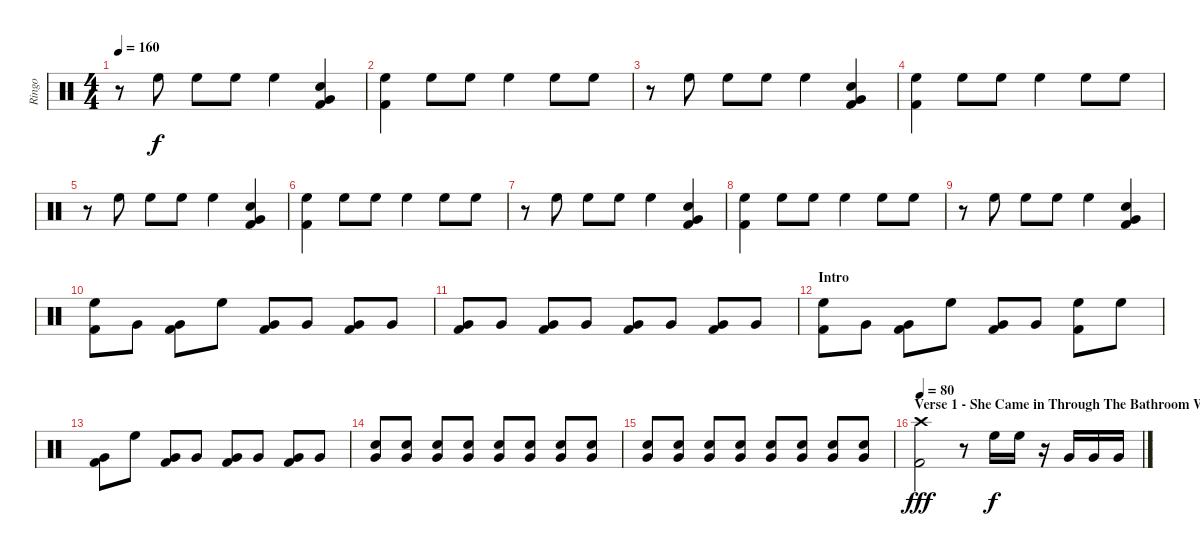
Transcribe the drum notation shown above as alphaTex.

\track ("Ringo" "Ringo") {instrument percussion}
\staff {score}
\articulation defaults
\ts (4 4)
\tempo 160
\clef neutral
\ks c
r.8{dy f} "High Floor Tom (hit)".8 "High Floor Tom (hit)".8 "High Floor Tom (hit)".8 "High Floor Tom (hit)".4 ("Very Low Tom (hit)" "Snare (hit) 2" "Kick (hit) 2").4 |
("High Floor Tom (hit)" "Kick (hit) 2").4 "High Floor Tom (hit)".8 "High Floor Tom (hit)".8 "High Floor Tom (hit)".4 "High Floor Tom (hit)".8 "High Floor Tom (hit)".8 |
r.8 "High Floor Tom (hit)".8 "High Floor Tom (hit)".8 "High Floor Tom (hit)".8 "High Floor Tom (hit)".4 ("Very Low Tom (hit)" "Snare (hit) 2" "Kick (hit) 2").4 |
("High Floor Tom (hit)" "Kick (hit) 2").4 "High Floor Tom (hit)".8 "High Floor Tom (hit)".8 "High Floor Tom (hit)".4 "High Floor Tom (hit)".8 "High Floor Tom (hit)".8 |
r.8 "High Floor Tom (hit)".8 "High Floor Tom (hit)".8 "High Floor Tom (hit)".8 "High Floor Tom (hit)".4 ("Very Low Tom (hit)" "Snare (hit) 2" "Kick (hit) 2").4 |
("High Floor Tom (hit)" "Kick (hit) 2").4 "High Floor Tom (hit)".8 "High Floor Tom (hit)".8 "High Floor Tom (hit)".4 "High Floor Tom (hit)".8 "High Floor Tom (hit)".8 |
r.8 "High Floor Tom (hit)".8 "High Floor Tom (hit)".8 "High Floor Tom (hit)".8 "High Floor Tom (hit)".4 ("Very Low Tom (hit)" "Snare (hit) 2" "Kick (hit) 2").4 |
("High Floor Tom (hit)" "Kick (hit) 2").4 "High Floor Tom (hit)".8 "High Floor Tom (hit)".8 "High Floor Tom (hit)".4 "High Floor Tom (hit)".8 "High Floor Tom (hit)".8 |
r.8 "High Floor Tom (hit)".8 "High Floor Tom (hit)".8 "High Floor Tom (hit)".8 "High Floor Tom (hit)".4 ("Very Low Tom (hit)" "Snare (hit) 2" "Kick (hit) 2").4 |
("High Floor Tom (hit)" "Kick (hit) 2").8 "Very Low Tom (hit)".8 ("Very Low Tom (hit)" "Kick (hit) 2").8 "High Floor Tom (hit)".8 ("Very Low Tom (hit)" "Kick (hit) 2").8 "Very Low Tom (hit)".8 ("Very Low Tom (hit)" "Kick (hit) 2").8 "Very Low Tom (hit)".8 |
("Very Low Tom (hit)" "Kick (hit) 2").8 "Very Low Tom (hit)".8 ("Very Low Tom (hit)" "Kick (hit) 2").8 "Very Low Tom (hit)".8 ("Very Low Tom (hit)" "Kick (hit) 2").8 "Very Low Tom (hit)".8 ("Very Low Tom (hit)" "Kick (hit) 2").8 "Very Low Tom (hit)".8 |
\section ("" "Intro ")
("High Floor Tom (hit)" "Kick (hit) 2").8 "Very Low Tom (hit)".8 ("Very Low Tom (hit)" "Kick (hit) 2").8 "High Floor Tom (hit)".8 ("Very Low Tom (hit)" "Kick (hit) 2").8 "Very Low Tom (hit)".8 ("High Floor Tom (hit)" "Kick (hit) 2").8 "High Floor Tom (hit)".8 |
("Very Low Tom (hit)" "Kick (hit) 2").8 "High Floor Tom (hit)".8 ("Very Low Tom (hit)" "Kick (hit) 2").8 "Very Low Tom (hit)".8 ("Very Low Tom (hit)" "Kick (hit) 2").8 "Very Low Tom (hit)".8 ("Very Low Tom (hit)" "Kick (hit) 2").8 "Very Low Tom (hit)".8 |
("Very Low Tom (hit)" "Snare (hit) 2").8 ("Very Low Tom (hit)" "Snare (hit) 2").8 ("Very Low Tom (hit)" "Snare (hit) 2").8 ("Very Low Tom (hit)" "Snare (hit) 2").8 ("Very Low Tom (hit)" "Snare (hit) 2").8 ("Very Low Tom (hit)" "Snare (hit) 2").8 ("Very Low Tom (hit)" "Snare (hit) 2").8 ("Very Low Tom (hit)" "Snare (hit) 2").8 |
("Very Low Tom (hit)" "Snare (hit) 2").8 ("Very Low Tom (hit)" "Snare (hit) 2").8 ("Very Low Tom (hit)" "Snare (hit) 2").8 ("Very Low Tom (hit)" "Snare (hit) 2").8 ("Very Low Tom (hit)" "Snare (hit) 2").8 ("Very Low Tom (hit)" "Snare (hit) 2").8 ("Very Low Tom (hit)" "Snare (hit) 2").8 ("Very Low Tom (hit)" "Snare (hit) 2").8 |
\section ("" "Verse 1 - She Came in Through The Bathroom Window")
\tempo 80
("Crash high (hit)" "Kick (hit) 2").2{dy fff} r.8 "High Floor Tom (hit)".16{dy f} "High Floor Tom (hit)".16 r.16 "Very Low Tom (hit)".16 "Very Low Tom (hit)".16 "Very Low Tom (hit)".16
